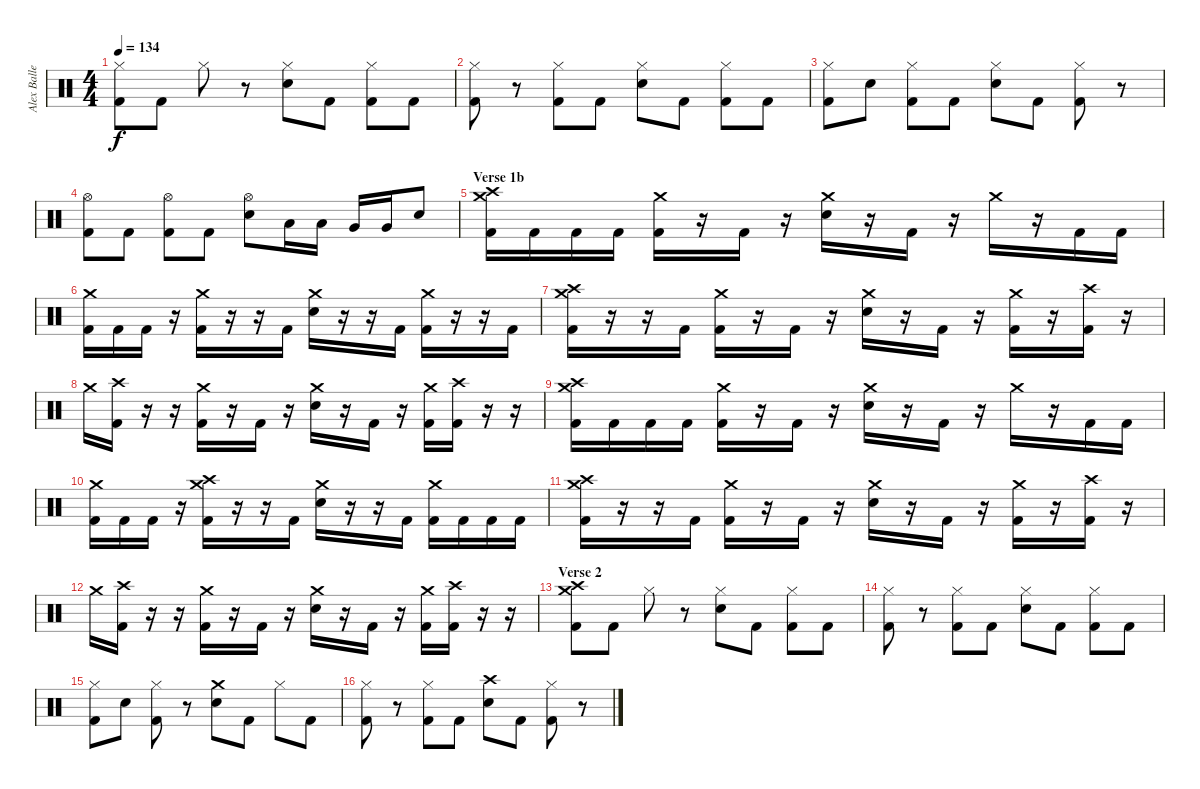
\track ("Alex Ballew" "Alex Balle") {instrument percussion}
\staff {score}
\articulation defaults
\ts (4 4)
\tempo 134
\clef neutral
\ks c
("Hi-Hat (closed)" "Kick (hit) 2").8{dy f} "Kick (hit) 2".8 "Hi-Hat (closed)".8 r.8 ("Hi-Hat (closed)" "Electric Snare (hit)").8 "Kick (hit) 2".8 ("Hi-Hat (closed)" "Kick (hit) 2").8 "Kick (hit) 2".8 |
("Hi-Hat (closed)" "Kick (hit) 2").8 r.8 ("Hi-Hat (closed)" "Kick (hit) 2").8 "Kick (hit) 2".8 ("Hi-Hat (closed)" "Electric Snare (hit)").8 "Kick (hit) 2".8 ("Hi-Hat (closed)" "Kick (hit) 2").8 "Kick (hit) 2".8 |
("Hi-Hat (closed)" "Kick (hit) 2").8 "Electric Snare (hit)".8 ("Hi-Hat (closed)" "Kick (hit) 2").8 "Kick (hit) 2".8 ("Hi-Hat (closed)" "Electric Snare (hit)").8 "Kick (hit) 2".8 ("Hi-Hat (closed)" "Kick (hit) 2").8 r.8 |
("Hi-Hat (open)" "Kick (hit) 2").8 "Kick (hit) 2".8 ("Hi-Hat (open)" "Kick (hit) 2").8 "Kick (hit) 2".8 ("Hi-Hat (open)" "Electric Snare (hit)").8 "Low Tom (hit)".16 "Low Tom (hit)".16 "Very Low Tom (hit)".16 "Very Low Tom (hit)".16 "Electric Snare (hit)".8 |
\section ("" "Verse 1b")
("Crash medium (hit)" "Crash high (hit)" "Kick (hit) 2").16 "Kick (hit) 2".16 "Kick (hit) 2".16 "Kick (hit) 2".16 ("Crash medium (hit)" "Kick (hit) 2").16 r.16 "Kick (hit) 2".16 r.16 ("Crash medium (hit)" "Electric Snare (hit)").16 r.16 "Kick (hit) 2".16 r.16 "Crash medium (hit)".16 r.16 "Kick (hit) 2".16 "Kick (hit) 2".16 |
("Crash medium (hit)" "Kick (hit) 2").16 "Kick (hit) 2".16 "Kick (hit) 2".16 r.16 ("Crash medium (hit)" "Kick (hit) 2").16 r.16 r.16 "Kick (hit) 2".16 ("Crash medium (hit)" "Electric Snare (hit)").16 r.16 r.16 "Kick (hit) 2".16 ("Crash medium (hit)" "Kick (hit) 2").16 r.16 r.16 "Kick (hit) 2".16 |
("Crash medium (hit)" "Crash high (hit)" "Kick (hit) 2").16 r.16 r.16 "Kick (hit) 2".16 ("Crash medium (hit)" "Kick (hit) 2").16 r.16 "Kick (hit) 2".16 r.16 ("Crash medium (hit)" "Electric Snare (hit)").16 r.16 "Kick (hit) 2".16 r.16 ("Crash medium (hit)" "Kick (hit) 2").16 r.16 ("Crash high (hit)" "Kick (hit) 2").16 r.16 |
"Crash medium (hit)".16 ("Crash high (hit)" "Kick (hit) 2").16 r.16 r.16 ("Crash medium (hit)" "Kick (hit) 2").16 r.16 "Kick (hit) 2".16 r.16 ("Crash medium (hit)" "Electric Snare (hit)").16 r.16 "Kick (hit) 2".16 r.16 ("Crash medium (hit)" "Kick (hit) 2").16 ("Crash high (hit)" "Kick (hit) 2").16 r.16 r.16 |
("Crash medium (hit)" "Crash high (hit)" "Kick (hit) 2").16 "Kick (hit) 2".16 "Kick (hit) 2".16 "Kick (hit) 2".16 ("Crash medium (hit)" "Kick (hit) 2").16 r.16 "Kick (hit) 2".16 r.16 ("Crash medium (hit)" "Electric Snare (hit)").16 r.16 "Kick (hit) 2".16 r.16 "Crash medium (hit)".16 r.16 "Kick (hit) 2".16 "Kick (hit) 2".16 |
("Crash medium (hit)" "Kick (hit) 2").16 "Kick (hit) 2".16 "Kick (hit) 2".16 r.16 ("Crash medium (hit)" "Crash high (hit)" "Kick (hit) 2").16 r.16 r.16 "Kick (hit) 2".16 ("Crash medium (hit)" "Electric Snare (hit)").16 r.16 r.16 "Kick (hit) 2".16 ("Crash medium (hit)" "Kick (hit) 2").16 "Kick (hit) 2".16 "Kick (hit) 2".16 "Kick (hit) 2".16 |
("Crash medium (hit)" "Crash high (hit)" "Kick (hit) 2").16 r.16 r.16 "Kick (hit) 2".16 ("Crash medium (hit)" "Kick (hit) 2").16 r.16 "Kick (hit) 2".16 r.16 ("Crash medium (hit)" "Electric Snare (hit)").16 r.16 "Kick (hit) 2".16 r.16 ("Crash medium (hit)" "Kick (hit) 2").16 r.16 ("Crash high (hit)" "Kick (hit) 2").16 r.16 |
"Crash medium (hit)".16 ("Crash high (hit)" "Kick (hit) 2").16 r.16 r.16 ("Crash medium (hit)" "Kick (hit) 2").16 r.16 "Kick (hit) 2".16 r.16 ("Crash medium (hit)" "Electric Snare (hit)").16 r.16 "Kick (hit) 2".16 r.16 ("Crash medium (hit)" "Kick (hit) 2").16 ("Crash high (hit)" "Kick (hit) 2").16 r.16 r.16 |
\section ("" "Verse 2")
("Crash medium (hit)" "Crash high (hit)" "Kick (hit) 2").8 "Kick (hit) 2".8 "Hi-Hat (closed)".8 r.8 ("Hi-Hat (closed)" "Electric Snare (hit)").8 "Kick (hit) 2".8 ("Hi-Hat (closed)" "Kick (hit) 2").8 "Kick (hit) 2".8 |
("Hi-Hat (closed)" "Kick (hit) 2").8 r.8 ("Hi-Hat (closed)" "Kick (hit) 2").8 "Kick (hit) 2".8 ("Hi-Hat (closed)" "Electric Snare (hit)").8 "Kick (hit) 2".8 ("Hi-Hat (closed)" "Kick (hit) 2").8 "Kick (hit) 2".8 |
("Hi-Hat (closed)" "Kick (hit) 2").8 "Electric Snare (hit)".8 ("Hi-Hat (closed)" "Kick (hit) 2").8 r.8 ("Crash medium (hit)" "Electric Snare (hit)").8 "Kick (hit) 2".8 "Hi-Hat (closed)".8 "Kick (hit) 2".8 |
("Hi-Hat (closed)" "Kick (hit) 2").8 r.8 ("Hi-Hat (closed)" "Kick (hit) 2").8 "Kick (hit) 2".8 ("Crash high (hit)" "Electric Snare (hit)").8 "Kick (hit) 2".8 ("Hi-Hat (closed)" "Kick (hit) 2").8 r.8
